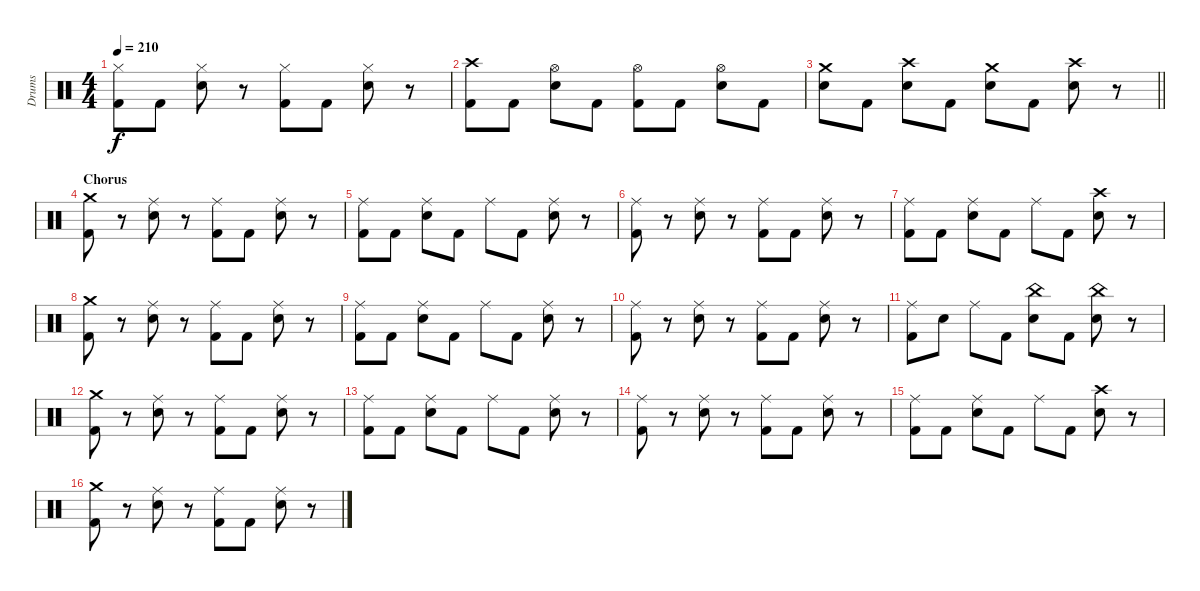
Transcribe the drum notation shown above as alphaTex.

\track ("Drums" "Drums") {instrument percussion}
\staff {score}
\articulation defaults
\ts (4 4)
\tempo 210
\clef neutral
\ks c
("Hi-Hat (closed)" "Kick (hit) 2").8{dy f} "Kick (hit) 2".8 ("Hi-Hat (closed)" "Electric Snare (hit)").8 r.8 ("Hi-Hat (closed)" "Kick (hit) 2").8 "Kick (hit) 2".8 ("Hi-Hat (closed)" "Electric Snare (hit)").8 r.8 |
("Crash high (hit)" "Kick (hit) 2").8 "Kick (hit) 2".8 ("Hi-Hat (open)" "Electric Snare (hit)").8 "Kick (hit) 2".8 ("Hi-Hat (open)" "Kick (hit) 2").8 "Kick (hit) 2".8 ("Hi-Hat (open)" "Electric Snare (hit)").8 "Kick (hit) 2".8 |
\barLineRight lightlight
("Crash medium (hit)" "Electric Snare (hit)").8 "Kick (hit) 2".8 ("Crash high (hit)" "Electric Snare (hit)").8 "Kick (hit) 2".8 ("Crash medium (hit)" "Electric Snare (hit)").8 "Kick (hit) 2".8 ("Crash high (hit)" "Electric Snare (hit)").8 r.8 |
\section ("" "Chorus")
("Crash medium (hit)" "Kick (hit) 2").8 r.8 ("Ride (middle)" "Electric Snare (hit)").8 r.8 ("Ride (middle)" "Kick (hit) 2").8 "Kick (hit) 2".8 ("Ride (middle)" "Electric Snare (hit)").8 r.8 |
("Ride (middle)" "Kick (hit) 2").8 "Kick (hit) 2".8 ("Ride (middle)" "Electric Snare (hit)").8 "Kick (hit) 2".8 "Ride (middle)".8 "Kick (hit) 2".8 ("Ride (middle)" "Electric Snare (hit)").8 r.8 |
("Ride (middle)" "Kick (hit) 2").8 r.8 ("Ride (middle)" "Electric Snare (hit)").8 r.8 ("Ride (middle)" "Kick (hit) 2").8 "Kick (hit) 2".8 ("Ride (middle)" "Electric Snare (hit)").8 r.8 |
("Ride (middle)" "Kick (hit) 2").8 "Kick (hit) 2".8 ("Ride (middle)" "Electric Snare (hit)").8 "Kick (hit) 2".8 "Ride (middle)".8 "Kick (hit) 2".8 ("Crash high (hit)" "Electric Snare (hit)").8 r.8 |
("Crash medium (hit)" "Kick (hit) 2").8 r.8 ("Ride (middle)" "Electric Snare (hit)").8 r.8 ("Ride (middle)" "Kick (hit) 2").8 "Kick (hit) 2".8 ("Ride (middle)" "Electric Snare (hit)").8 r.8 |
("Ride (middle)" "Kick (hit) 2").8 "Kick (hit) 2".8 ("Ride (middle)" "Electric Snare (hit)").8 "Kick (hit) 2".8 "Ride (middle)".8 "Kick (hit) 2".8 ("Ride (middle)" "Electric Snare (hit)").8 r.8 |
("Ride (middle)" "Kick (hit) 2").8 r.8 ("Ride (middle)" "Electric Snare (hit)").8 r.8 ("Ride (middle)" "Kick (hit) 2").8 "Kick (hit) 2".8 ("Ride (middle)" "Electric Snare (hit)").8 r.8 |
("Ride (middle)" "Kick (hit) 2").8 "Electric Snare (hit)".8 "Ride (middle)".8 "Kick (hit) 2".8 ("China (hit)" "Electric Snare (hit)").8 "Kick (hit) 2".8 ("China (hit)" "Electric Snare (hit)").8 r.8 |
("Crash medium (hit)" "Kick (hit) 2").8 r.8 ("Ride (middle)" "Electric Snare (hit)").8 r.8 ("Ride (middle)" "Kick (hit) 2").8 "Kick (hit) 2".8 ("Ride (middle)" "Electric Snare (hit)").8 r.8 |
("Ride (middle)" "Kick (hit) 2").8 "Kick (hit) 2".8 ("Ride (middle)" "Electric Snare (hit)").8 "Kick (hit) 2".8 "Ride (middle)".8 "Kick (hit) 2".8 ("Ride (middle)" "Electric Snare (hit)").8 r.8 |
("Ride (middle)" "Kick (hit) 2").8 r.8 ("Ride (middle)" "Electric Snare (hit)").8 r.8 ("Ride (middle)" "Kick (hit) 2").8 "Kick (hit) 2".8 ("Ride (middle)" "Electric Snare (hit)").8 r.8 |
("Ride (middle)" "Kick (hit) 2").8 "Kick (hit) 2".8 ("Ride (middle)" "Electric Snare (hit)").8 "Kick (hit) 2".8 "Ride (middle)".8 "Kick (hit) 2".8 ("Crash high (hit)" "Electric Snare (hit)").8 r.8 |
("Crash medium (hit)" "Kick (hit) 2").8 r.8 ("Ride (middle)" "Electric Snare (hit)").8 r.8 ("Ride (middle)" "Kick (hit) 2").8 "Kick (hit) 2".8 ("Ride (middle)" "Electric Snare (hit)").8 r.8
